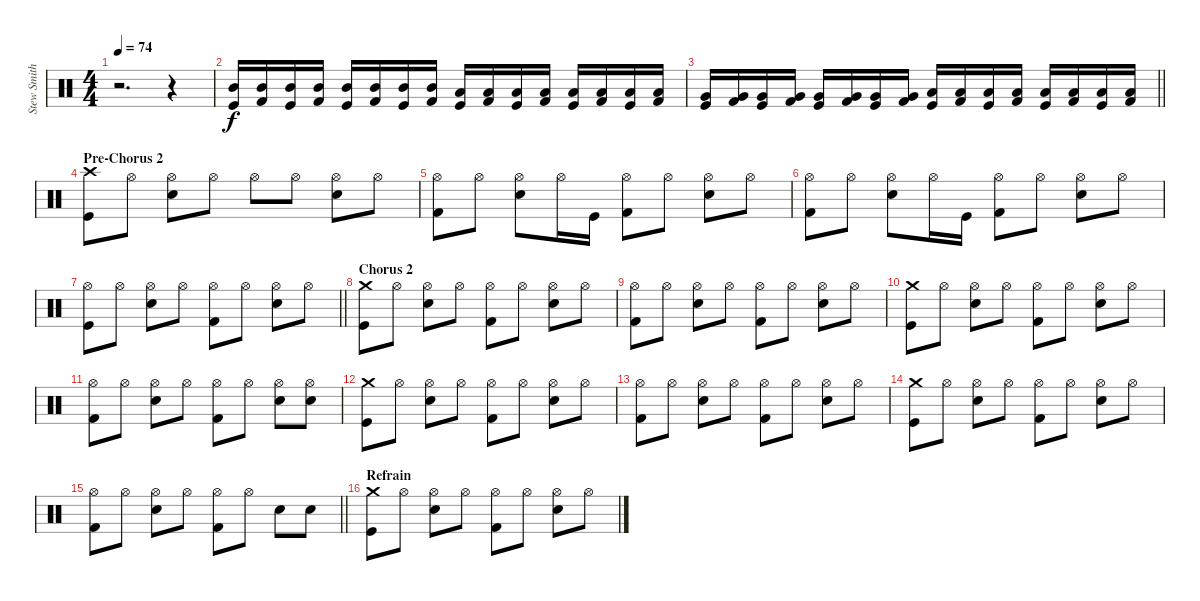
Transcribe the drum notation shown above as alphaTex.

\track ("Stew Smith" "Stew Smith") {instrument percussion}
\staff {score}
\articulation defaults
\ts (4 4)
\tempo 74
\clef neutral
\ks c
r.2{d dy f volume 0} r.4{volume 9} |
("Mid Tom (hit)" "Kick (hit)").16 ("Mid Tom (hit)" "Kick (hit) 2").16 ("Mid Tom (hit)" "Kick (hit)").16 ("Mid Tom (hit)" "Kick (hit) 2").16 ("Mid Tom (hit)" "Kick (hit)").16 ("Mid Tom (hit)" "Kick (hit) 2").16 ("Mid Tom (hit)" "Kick (hit)").16 ("Mid Tom (hit)" "Kick (hit) 2").16 ("Low Tom (hit)" "Kick (hit)").16 ("Low Tom (hit)" "Kick (hit) 2").16 ("Low Tom (hit)" "Kick (hit)").16 ("Low Tom (hit)" "Kick (hit) 2").16 ("Low Tom (hit)" "Kick (hit)").16 ("Low Tom (hit)" "Kick (hit) 2").16 ("Low Tom (hit)" "Kick (hit)").16 ("Low Tom (hit)" "Kick (hit) 2").16 |
\barLineRight lightlight
("Very Low Tom (hit)" "Kick (hit)").16 ("Very Low Tom (hit)" "Kick (hit) 2").16 ("Very Low Tom (hit)" "Kick (hit)").16 ("Very Low Tom (hit)" "Kick (hit) 2").16 ("Very Low Tom (hit)" "Kick (hit)").16 ("Very Low Tom (hit)" "Kick (hit) 2").16 ("Very Low Tom (hit)" "Kick (hit)").16 ("Very Low Tom (hit)" "Kick (hit) 2").16 ("Low Floor Tom (hit)" "Kick (hit)").16 ("Low Floor Tom (hit)" "Kick (hit) 2").16 ("Low Floor Tom (hit)" "Kick (hit)").16 ("Low Floor Tom (hit)" "Kick (hit) 2").16 ("Low Floor Tom (hit)" "Kick (hit)").16 ("Low Floor Tom (hit)" "Kick (hit) 2").16 ("Low Floor Tom (hit)" "Kick (hit)").16 ("Low Floor Tom (hit)" "Kick (hit) 2").16 |
\section ("" "Pre-Chorus 2")
("Crash high (hit)" "Kick (hit)").8 "Hi-Hat (open)".8 ("Hi-Hat (open)" "Electric Snare (hit)").8 "Hi-Hat (open)".8 "Hi-Hat (open)".8 "Hi-Hat (open)".8 ("Hi-Hat (open)" "Electric Snare (hit)").8 "Hi-Hat (open)".8 |
("Hi-Hat (open)" "Kick (hit) 2").8 "Hi-Hat (open)".8 ("Hi-Hat (open)" "Electric Snare (hit)").8 "Hi-Hat (open)".16 "Kick (hit)".16 ("Hi-Hat (open)" "Kick (hit) 2").8 "Hi-Hat (open)".8 ("Hi-Hat (open)" "Electric Snare (hit)").8 "Hi-Hat (open)".8 |
("Hi-Hat (open)" "Kick (hit) 2").8 "Hi-Hat (open)".8 ("Hi-Hat (open)" "Electric Snare (hit)").8 "Hi-Hat (open)".16 "Kick (hit)".16 ("Hi-Hat (open)" "Kick (hit) 2").8 "Hi-Hat (open)".8 ("Hi-Hat (open)" "Electric Snare (hit)").8 "Hi-Hat (open)".8 |
\barLineRight lightlight
("Hi-Hat (open)" "Kick (hit)").8 "Hi-Hat (open)".8 ("Hi-Hat (open)" "Electric Snare (hit)").8 "Hi-Hat (open)".8 ("Hi-Hat (open)" "Kick (hit) 2").8 "Hi-Hat (open)".8 ("Hi-Hat (open)" "Electric Snare (hit)").8 "Hi-Hat (open)".8 |
\section ("" "Chorus 2")
("Crash medium (hit)" "Kick (hit)").8 "Hi-Hat (open)".8 ("Hi-Hat (open)" "Electric Snare (hit)").8 "Hi-Hat (open)".8 ("Hi-Hat (open)" "Kick (hit) 2").8 "Hi-Hat (open)".8 ("Hi-Hat (open)" "Electric Snare (hit)").8 "Hi-Hat (open)".8 |
("Hi-Hat (open)" "Kick (hit) 2").8 "Hi-Hat (open)".8 ("Hi-Hat (open)" "Electric Snare (hit)").8 "Hi-Hat (open)".8 ("Hi-Hat (open)" "Kick (hit) 2").8 "Hi-Hat (open)".8 ("Hi-Hat (open)" "Electric Snare (hit)").8 "Hi-Hat (open)".8 |
("Crash medium (hit)" "Kick (hit)").8 "Hi-Hat (open)".8 ("Hi-Hat (open)" "Electric Snare (hit)").8 "Hi-Hat (open)".8 ("Hi-Hat (open)" "Kick (hit) 2").8 "Hi-Hat (open)".8 ("Hi-Hat (open)" "Electric Snare (hit)").8 "Hi-Hat (open)".8 |
("Hi-Hat (open)" "Kick (hit) 2").8 "Hi-Hat (open)".8 ("Hi-Hat (open)" "Electric Snare (hit)").8 "Hi-Hat (open)".8 ("Hi-Hat (open)" "Kick (hit) 2").8 "Hi-Hat (open)".8 ("Hi-Hat (open)" "Electric Snare (hit)").8 ("Hi-Hat (open)" "Electric Snare (hit)").8 |
("Crash medium (hit)" "Kick (hit)").8 "Hi-Hat (open)".8 ("Hi-Hat (open)" "Electric Snare (hit)").8 "Hi-Hat (open)".8 ("Hi-Hat (open)" "Kick (hit) 2").8 "Hi-Hat (open)".8 ("Hi-Hat (open)" "Electric Snare (hit)").8 "Hi-Hat (open)".8 |
("Hi-Hat (open)" "Kick (hit) 2").8 "Hi-Hat (open)".8 ("Hi-Hat (open)" "Electric Snare (hit)").8 "Hi-Hat (open)".8 ("Hi-Hat (open)" "Kick (hit) 2").8 "Hi-Hat (open)".8 ("Hi-Hat (open)" "Electric Snare (hit)").8 "Hi-Hat (open)".8 |
("Crash medium (hit)" "Kick (hit)").8 "Hi-Hat (open)".8 ("Hi-Hat (open)" "Electric Snare (hit)").8 "Hi-Hat (open)".8 ("Hi-Hat (open)" "Kick (hit) 2").8 "Hi-Hat (open)".8 ("Hi-Hat (open)" "Electric Snare (hit)").8 "Hi-Hat (open)".8 |
\barLineRight lightlight
("Hi-Hat (open)" "Kick (hit) 2").8 "Hi-Hat (open)".8 ("Hi-Hat (open)" "Electric Snare (hit)").8 "Hi-Hat (open)".8 ("Hi-Hat (open)" "Kick (hit) 2").8 "Hi-Hat (open)".8 "Electric Snare (hit)".8 "Electric Snare (hit)".8 |
\section ("" "Refrain")
("Crash medium (hit)" "Kick (hit)").8 "Hi-Hat (open)".8 ("Hi-Hat (open)" "Electric Snare (hit)").8 "Hi-Hat (open)".8 ("Hi-Hat (open)" "Kick (hit) 2").8 "Hi-Hat (open)".8 ("Hi-Hat (open)" "Electric Snare (hit)").8 "Hi-Hat (open)".8
